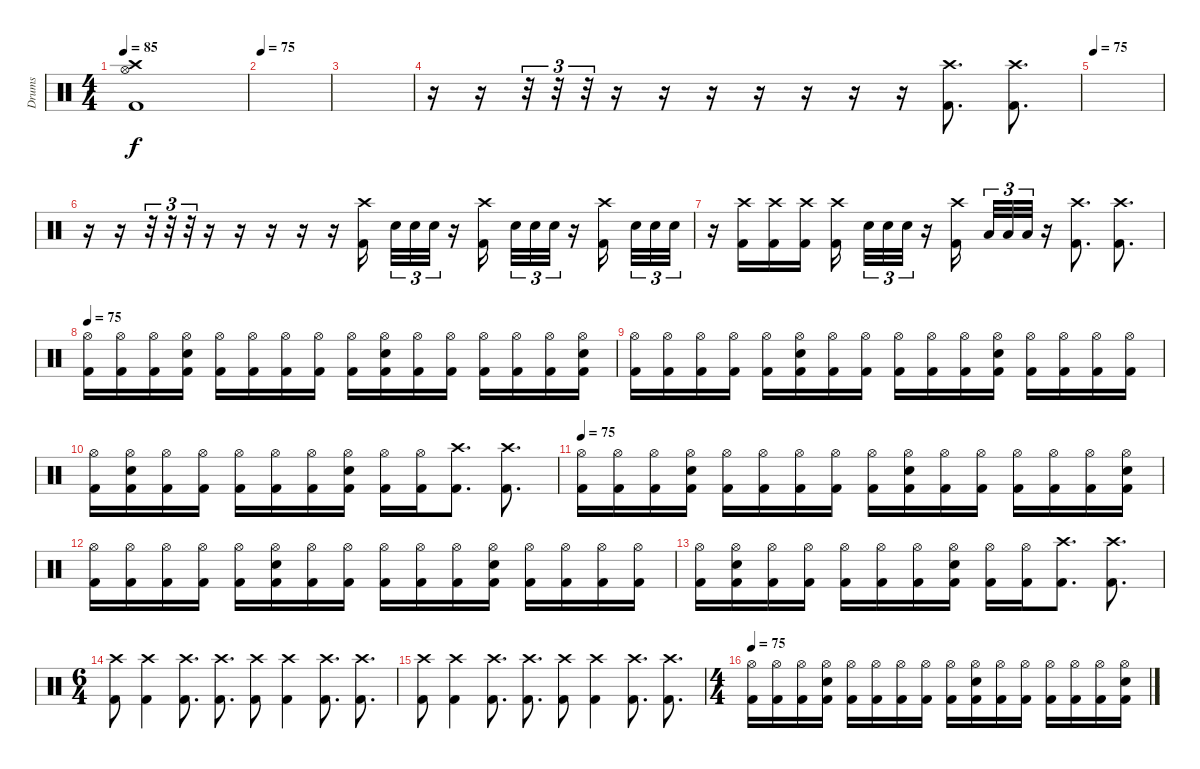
\track ("Drums" "Drums") {instrument percussion}
\staff {score}
\articulation defaults
\ts (4 4)
\tempo 85
\clef neutral
\ks c
("Crash high (hit)" "Hi-Hat (open)" "Kick (hit) 2").1{dy f} |
\tempo 75
|
|
r.16 r.16 r.32{tu (3 2)} r.32{tu (3 2)} r.32{tu (3 2)} r.16 r.16 r.16 r.16 r.16 r.16 r.16 ("Crash high (hit)" "Kick (hit) 2").8{d} ("Crash high (hit)" "Kick (hit) 2").8{d} |
\tempo 75
|
r.16 r.16 r.32{tu (3 2)} r.32{tu (3 2)} r.32{tu (3 2)} r.16 r.16 r.16 r.16 r.16 ("Crash high (hit)" "Kick (hit) 2").16{beam splitsecondary} "Snare (hit) 2".32{tu (3 2)} "Snare (hit) 2".32{tu (3 2)} "Snare (hit) 2".32{tu (3 2)} r.16 ("Crash high (hit)" "Kick (hit) 2").16 "Snare (hit) 2".32{tu (3 2)} "Snare (hit) 2".32{tu (3 2)} "Snare (hit) 2".32{tu (3 2)} r.16 ("Crash high (hit)" "Kick (hit) 2").16{beam splitsecondary} "Snare (hit) 2".32{tu (3 2)} "Snare (hit) 2".32{tu (3 2)} "Snare (hit) 2".32{tu (3 2)} |
r.16 ("Crash high (hit)" "Kick (hit) 2").16 ("Crash high (hit)" "Kick (hit) 2").16 ("Crash high (hit)" "Kick (hit) 2").16 ("Crash high (hit)" "Kick (hit) 2").16{beam splitsecondary} "Snare (hit) 2".32{tu (3 2)} "Snare (hit) 2".32{tu (3 2)} "Snare (hit) 2".32{tu (3 2)} r.16 ("Crash high (hit)" "Kick (hit) 2").16 "Low Floor Tom (hit)".32{tu (3 2)} "Low Floor Tom (hit)".32{tu (3 2)} "Low Floor Tom (hit)".32{tu (3 2)} r.16 ("Crash high (hit)" "Kick (hit) 2").8{d} ("Crash high (hit)" "Kick (hit) 2").8{d} |
\tempo 75
("Hi-Hat (open)" "Kick (hit) 2").16 ("Hi-Hat (open)" "Kick (hit) 2").16 ("Hi-Hat (open)" "Kick (hit) 2").16 ("Hi-Hat (open)" "Snare (hit) 2" "Kick (hit) 2").16 ("Hi-Hat (open)" "Kick (hit) 2").16 ("Hi-Hat (open)" "Kick (hit) 2").16 ("Hi-Hat (open)" "Kick (hit) 2").16 ("Hi-Hat (open)" "Kick (hit) 2").16 ("Hi-Hat (open)" "Kick (hit) 2").16 ("Hi-Hat (open)" "Snare (hit) 2" "Kick (hit) 2").16 ("Hi-Hat (open)" "Kick (hit) 2").16 ("Hi-Hat (open)" "Kick (hit) 2").16 ("Hi-Hat (open)" "Kick (hit) 2").16 ("Hi-Hat (open)" "Kick (hit) 2").16 ("Hi-Hat (open)" "Kick (hit) 2").16 ("Hi-Hat (open)" "Snare (hit) 2" "Kick (hit) 2").16 |
("Hi-Hat (open)" "Kick (hit) 2").16 ("Hi-Hat (open)" "Kick (hit) 2").16 ("Hi-Hat (open)" "Kick (hit) 2").16 ("Hi-Hat (open)" "Kick (hit) 2").16 ("Hi-Hat (open)" "Kick (hit) 2").16 ("Hi-Hat (open)" "Snare (hit) 2" "Kick (hit) 2").16 ("Hi-Hat (open)" "Kick (hit) 2").16 ("Hi-Hat (open)" "Kick (hit) 2").16 ("Hi-Hat (open)" "Kick (hit) 2").16 ("Hi-Hat (open)" "Kick (hit) 2").16 ("Hi-Hat (open)" "Kick (hit) 2").16 ("Hi-Hat (open)" "Snare (hit) 2" "Kick (hit) 2").16 ("Hi-Hat (open)" "Kick (hit) 2").16 ("Hi-Hat (open)" "Kick (hit) 2").16 ("Hi-Hat (open)" "Kick (hit) 2").16 ("Hi-Hat (open)" "Kick (hit) 2").16 |
("Hi-Hat (open)" "Kick (hit) 2").16 ("Hi-Hat (open)" "Snare (hit) 2" "Kick (hit) 2").16 ("Hi-Hat (open)" "Kick (hit) 2").16 ("Hi-Hat (open)" "Kick (hit) 2").16 ("Hi-Hat (open)" "Kick (hit) 2").16 ("Hi-Hat (open)" "Kick (hit) 2").16 ("Hi-Hat (open)" "Kick (hit) 2").16 ("Hi-Hat (open)" "Snare (hit) 2" "Kick (hit) 2").16 ("Hi-Hat (open)" "Kick (hit) 2").16 ("Hi-Hat (open)" "Kick (hit) 2").16 ("Crash high (hit)" "Kick (hit) 2").8{d} ("Crash high (hit)" "Kick (hit) 2").8{d} |
\tempo 75
("Hi-Hat (open)" "Kick (hit) 2").16 ("Hi-Hat (open)" "Kick (hit) 2").16 ("Hi-Hat (open)" "Kick (hit) 2").16 ("Hi-Hat (open)" "Snare (hit) 2" "Kick (hit) 2").16 ("Hi-Hat (open)" "Kick (hit) 2").16 ("Hi-Hat (open)" "Kick (hit) 2").16 ("Hi-Hat (open)" "Kick (hit) 2").16 ("Hi-Hat (open)" "Kick (hit) 2").16 ("Hi-Hat (open)" "Kick (hit) 2").16 ("Hi-Hat (open)" "Snare (hit) 2" "Kick (hit) 2").16 ("Hi-Hat (open)" "Kick (hit) 2").16 ("Hi-Hat (open)" "Kick (hit) 2").16 ("Hi-Hat (open)" "Kick (hit) 2").16 ("Hi-Hat (open)" "Kick (hit) 2").16 ("Hi-Hat (open)" "Kick (hit) 2").16 ("Hi-Hat (open)" "Snare (hit) 2" "Kick (hit) 2").16 |
("Hi-Hat (open)" "Kick (hit) 2").16 ("Hi-Hat (open)" "Kick (hit) 2").16 ("Hi-Hat (open)" "Kick (hit) 2").16 ("Hi-Hat (open)" "Kick (hit) 2").16 ("Hi-Hat (open)" "Kick (hit) 2").16 ("Hi-Hat (open)" "Snare (hit) 2" "Kick (hit) 2").16 ("Hi-Hat (open)" "Kick (hit) 2").16 ("Hi-Hat (open)" "Kick (hit) 2").16 ("Hi-Hat (open)" "Kick (hit) 2").16 ("Hi-Hat (open)" "Kick (hit) 2").16 ("Hi-Hat (open)" "Kick (hit) 2").16 ("Hi-Hat (open)" "Snare (hit) 2" "Kick (hit) 2").16 ("Hi-Hat (open)" "Kick (hit) 2").16 ("Hi-Hat (open)" "Kick (hit) 2").16 ("Hi-Hat (open)" "Kick (hit) 2").16 ("Hi-Hat (open)" "Kick (hit) 2").16 |
("Hi-Hat (open)" "Kick (hit) 2").16 ("Hi-Hat (open)" "Snare (hit) 2" "Kick (hit) 2").16 ("Hi-Hat (open)" "Kick (hit) 2").16 ("Hi-Hat (open)" "Kick (hit) 2").16 ("Hi-Hat (open)" "Kick (hit) 2").16 ("Hi-Hat (open)" "Kick (hit) 2").16 ("Hi-Hat (open)" "Kick (hit) 2").16 ("Hi-Hat (open)" "Snare (hit) 2" "Kick (hit) 2").16 ("Hi-Hat (open)" "Kick (hit) 2").16 ("Hi-Hat (open)" "Kick (hit) 2").16 ("Crash high (hit)" "Kick (hit) 2").8{d} ("Crash high (hit)" "Kick (hit) 2").8{d} |
\ts (6 4)
("Crash high (hit)" "Kick (hit) 2").8 ("Crash high (hit)" "Kick (hit) 2").4 ("Crash high (hit)" "Kick (hit) 2").8{d} ("Crash high (hit)" "Kick (hit) 2").8{d} ("Crash high (hit)" "Kick (hit) 2").8 ("Crash high (hit)" "Kick (hit) 2").4 ("Crash high (hit)" "Kick (hit) 2").8{d} ("Crash high (hit)" "Kick (hit) 2").8{d} |
("Crash high (hit)" "Kick (hit) 2").8 ("Crash high (hit)" "Kick (hit) 2").4 ("Crash high (hit)" "Kick (hit) 2").8{d} ("Crash high (hit)" "Kick (hit) 2").8{d} ("Crash high (hit)" "Kick (hit) 2").8 ("Crash high (hit)" "Kick (hit) 2").4 ("Crash high (hit)" "Kick (hit) 2").8{d} ("Crash high (hit)" "Kick (hit) 2").8{d} |
\ts (4 4)
\tempo 75
("Hi-Hat (open)" "Kick (hit) 2").16 ("Hi-Hat (open)" "Kick (hit) 2").16 ("Hi-Hat (open)" "Kick (hit) 2").16 ("Hi-Hat (open)" "Snare (hit) 2" "Kick (hit) 2").16 ("Hi-Hat (open)" "Kick (hit) 2").16 ("Hi-Hat (open)" "Kick (hit) 2").16 ("Hi-Hat (open)" "Kick (hit) 2").16 ("Hi-Hat (open)" "Kick (hit) 2").16 ("Hi-Hat (open)" "Kick (hit) 2").16 ("Hi-Hat (open)" "Snare (hit) 2" "Kick (hit) 2").16 ("Hi-Hat (open)" "Kick (hit) 2").16 ("Hi-Hat (open)" "Kick (hit) 2").16 ("Hi-Hat (open)" "Kick (hit) 2").16 ("Hi-Hat (open)" "Kick (hit) 2").16 ("Hi-Hat (open)" "Kick (hit) 2").16 ("Hi-Hat (open)" "Snare (hit) 2" "Kick (hit) 2").16
